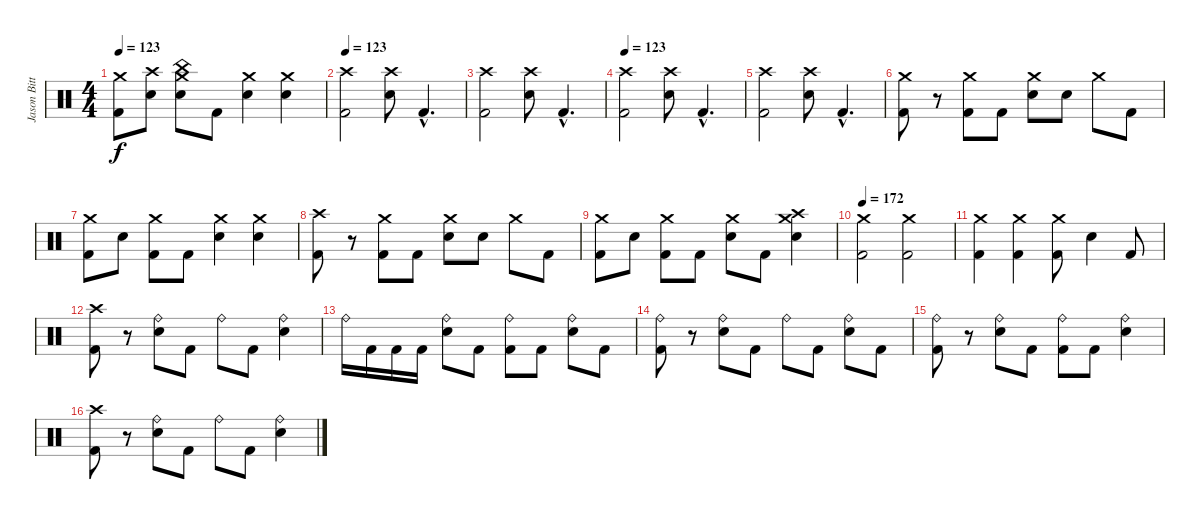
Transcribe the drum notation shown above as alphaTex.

\track ("Jason Bittner" "Jason Bitt") {instrument percussion}
\staff {score}
\articulation defaults
\ts (4 4)
\tempo 123
\clef neutral
\ks c
("Crash medium (hit)" "Kick (hit) 2").8{dy f} ("Crash high (hit)" "Electric Snare (hit)").8 ("Crash medium (hit)" "China (hit)" "Electric Snare (hit)").8 "Kick (hit) 2".8 ("Crash medium (hit)" "Electric Snare (hit)").4 ("Crash medium (hit)" "Electric Snare (hit)").4 |
\tempo 123
("Crash high (hit)" "Kick (hit) 2").2 ("Crash high (hit)" "Electric Snare (hit)").8 "Kick (hit) 2"{hac}.4{d} |
("Crash high (hit)" "Kick (hit) 2").2 ("Crash high (hit)" "Electric Snare (hit)").8 "Kick (hit) 2"{hac}.4{d} |
\tempo 123
("Crash high (hit)" "Kick (hit) 2").2 ("Crash high (hit)" "Electric Snare (hit)").8 "Kick (hit) 2"{hac}.4{d} |
("Crash high (hit)" "Kick (hit) 2").2 ("Crash high (hit)" "Electric Snare (hit)").8 "Kick (hit) 2"{hac}.4{d} |
("Crash medium (hit)" "Kick (hit) 2").8 r.8 ("Crash medium (hit)" "Kick (hit) 2").8 "Kick (hit) 2".8 ("Crash medium (hit)" "Electric Snare (hit)").8 "Electric Snare (hit)".8 "Crash medium (hit)".8 "Kick (hit) 2".8 |
("Crash medium (hit)" "Kick (hit) 2").8 "Electric Snare (hit)".8 ("Crash medium (hit)" "Kick (hit) 2").8 "Kick (hit) 2".8 ("Crash medium (hit)" "Electric Snare (hit)").4 ("Crash medium (hit)" "Electric Snare (hit)").4 |
("Crash high (hit)" "Kick (hit) 2").8 r.8 ("Crash medium (hit)" "Kick (hit) 2").8 "Kick (hit) 2".8 ("Crash medium (hit)" "Electric Snare (hit)").8 "Electric Snare (hit)".8 "Crash medium (hit)".8 "Kick (hit) 2".8 |
("Crash medium (hit)" "Kick (hit) 2").8 "Electric Snare (hit)".8 ("Crash medium (hit)" "Kick (hit) 2").8 "Kick (hit) 2".8 ("Crash medium (hit)" "Electric Snare (hit)").8 "Kick (hit) 2".8 ("Crash high (hit)" "Crash medium (hit)" "Electric Snare (hit)").4 |
\tempo 172
("Crash medium (hit)" "Kick (hit) 2").2 ("Crash medium (hit)" "Kick (hit) 2").2 |
("Crash medium (hit)" "Kick (hit) 2").4 ("Crash medium (hit)" "Kick (hit) 2").4 ("Crash medium (hit)" "Kick (hit) 2").8 "Electric Snare (hit)".4 "Kick (hit) 2".8 |
("Crash high (hit)" "Kick (hit) 2").8 r.8 ("Ride (bell)" "Electric Snare (hit)").8 "Kick (hit) 2".8 "Ride (bell)".8 "Kick (hit) 2".8 ("Ride (bell)" "Electric Snare (hit)").4 |
"Ride (bell)".16 "Kick (hit) 2".16 "Kick (hit) 2".16 "Kick (hit) 2".16 ("Ride (bell)" "Electric Snare (hit)").8 "Kick (hit) 2".8 ("Ride (bell)" "Kick (hit) 2").8 "Kick (hit) 2".8 ("Ride (bell)" "Electric Snare (hit)").8 "Kick (hit) 2".8 |
("Ride (bell)" "Kick (hit) 2").8 r.8 ("Ride (bell)" "Electric Snare (hit)").8 "Kick (hit) 2".8 "Ride (bell)".8 "Kick (hit) 2".8 ("Ride (bell)" "Electric Snare (hit)").8 "Kick (hit) 2".8 |
("Ride (bell)" "Kick (hit) 2").8 r.8 ("Ride (bell)" "Electric Snare (hit)").8 "Kick (hit) 2".8 ("Ride (bell)" "Kick (hit) 2").8 "Kick (hit) 2".8 ("Ride (bell)" "Electric Snare (hit)").4 |
("Crash high (hit)" "Kick (hit) 2").8 r.8 ("Ride (bell)" "Electric Snare (hit)").8 "Kick (hit) 2".8 "Ride (bell)".8 "Kick (hit) 2".8 ("Ride (bell)" "Electric Snare (hit)").4
